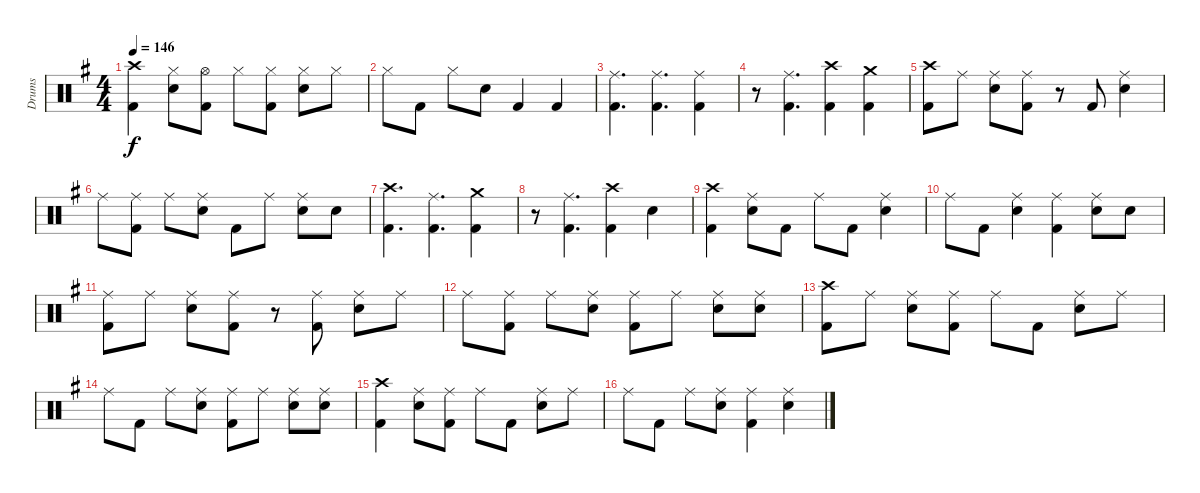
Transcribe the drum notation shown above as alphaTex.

\track ("Drums" "Drums") {instrument percussion}
\staff {score}
\articulation defaults
\ts (4 4)
\tempo 146
\clef neutral
\ks g
("Kick (hit) 2" "Crash high (hit)").4{dy f} ("Snare (hit) 2" "Hi-Hat (closed)").8 ("Kick (hit) 2" "Hi-Hat (open)").8 "Hi-Hat (closed)".8 ("Kick (hit) 2" "Hi-Hat (closed)").8 ("Snare (hit) 2" "Hi-Hat (closed)").8 "Hi-Hat (closed)".8 |
"Hi-Hat (closed)".8 "Kick (hit) 2".8 "Hi-Hat (closed)".8 "Snare (hit) 2".8 "Kick (hit) 2".4 "Kick (hit) 2".4 |
("Kick (hit) 2" "Ride (middle)").4{d} ("Kick (hit) 2" "Ride (middle)").4{d} ("Kick (hit) 2" "Ride (middle)").4 |
r.8 ("Kick (hit) 2" "Ride (middle)").4{d} ("Kick (hit) 2" "Crash high (hit)").4 ("Kick (hit) 2" "Crash medium (hit)").4 |
("Kick (hit) 2" "Crash high (hit)").8 "Ride (middle)".8 ("Snare (hit) 2" "Ride (middle)").8 ("Kick (hit) 2" "Ride (middle)").8 r.8 "Kick (hit) 2".8 ("Snare (hit) 2" "Ride (middle)").4 |
"Ride (middle)".8 ("Kick (hit) 2" "Ride (middle)").8 "Ride (middle)".8 ("Snare (hit) 2" "Ride (middle)").8 "Kick (hit) 2".8 "Ride (middle)".8 ("Snare (hit) 2" "Ride (middle)").8 "Snare (hit) 2".8 |
("Kick (hit) 2" "Crash high (hit)").4{d} ("Kick (hit) 2" "Ride (middle)").4{d} ("Kick (hit) 2" "Crash medium (hit)").4 |
r.8 ("Kick (hit) 2" "Ride (middle)").4{d} ("Kick (hit) 2" "Crash high (hit)").4 "Snare (hit) 2".4 |
("Kick (hit) 2" "Crash high (hit)").4 ("Snare (hit) 2" "Ride (middle)").8 "Kick (hit) 2".8 "Ride (middle)".8 "Kick (hit) 2".8 ("Snare (hit) 2" "Ride (middle)").4 |
"Ride (middle)".8 "Kick (hit) 2".8 ("Snare (hit) 2" "Ride (middle)").4 ("Kick (hit) 2" "Ride (middle)").4 ("Snare (hit) 2" "Ride (middle)").8 "Snare (hit) 2".8 |
("Kick (hit) 2" "Ride (middle)").8 "Ride (middle)".8 ("Snare (hit) 2" "Ride (middle)").8 ("Kick (hit) 2" "Ride (middle)").8 r.8 ("Kick (hit) 2" "Ride (middle)").8 ("Snare (hit) 2" "Ride (middle)").8 "Ride (middle)".8 |
"Ride (middle)".8 ("Kick (hit) 2" "Ride (middle)").8 "Ride (middle)".8 ("Snare (hit) 2" "Ride (middle)").8 ("Kick (hit) 2" "Ride (middle)").8 "Ride (middle)".8 ("Snare (hit) 2" "Ride (middle)").8 ("Snare (hit) 2" "Ride (middle)").8 |
("Kick (hit) 2" "Crash high (hit)").8 "Ride (middle)".8 ("Snare (hit) 2" "Ride (middle)").8 ("Kick (hit) 2" "Ride (middle)").8 "Ride (middle)".8 "Kick (hit) 2".8 ("Snare (hit) 2" "Ride (middle)").8 "Ride (middle)".8 |
"Ride (middle)".8 "Kick (hit) 2".8 "Ride (middle)".8 ("Snare (hit) 2" "Ride (middle)").8 ("Kick (hit) 2" "Ride (middle)").8 "Ride (middle)".8 ("Snare (hit) 2" "Ride (middle)").8 ("Snare (hit) 2" "Ride (middle)").8 |
("Kick (hit) 2" "Crash high (hit)").4 ("Snare (hit) 2" "Ride (middle)").8 ("Kick (hit) 2" "Ride (middle)").8 "Ride (middle)".8 "Kick (hit) 2".8 ("Snare (hit) 2" "Ride (middle)").8 "Ride (middle)".8 |
"Ride (middle)".8 "Kick (hit) 2".8 "Ride (middle)".8 ("Snare (hit) 2" "Ride (middle)").8 ("Kick (hit) 2" "Ride (middle)").4 ("Snare (hit) 2" "Ride (middle)").4
